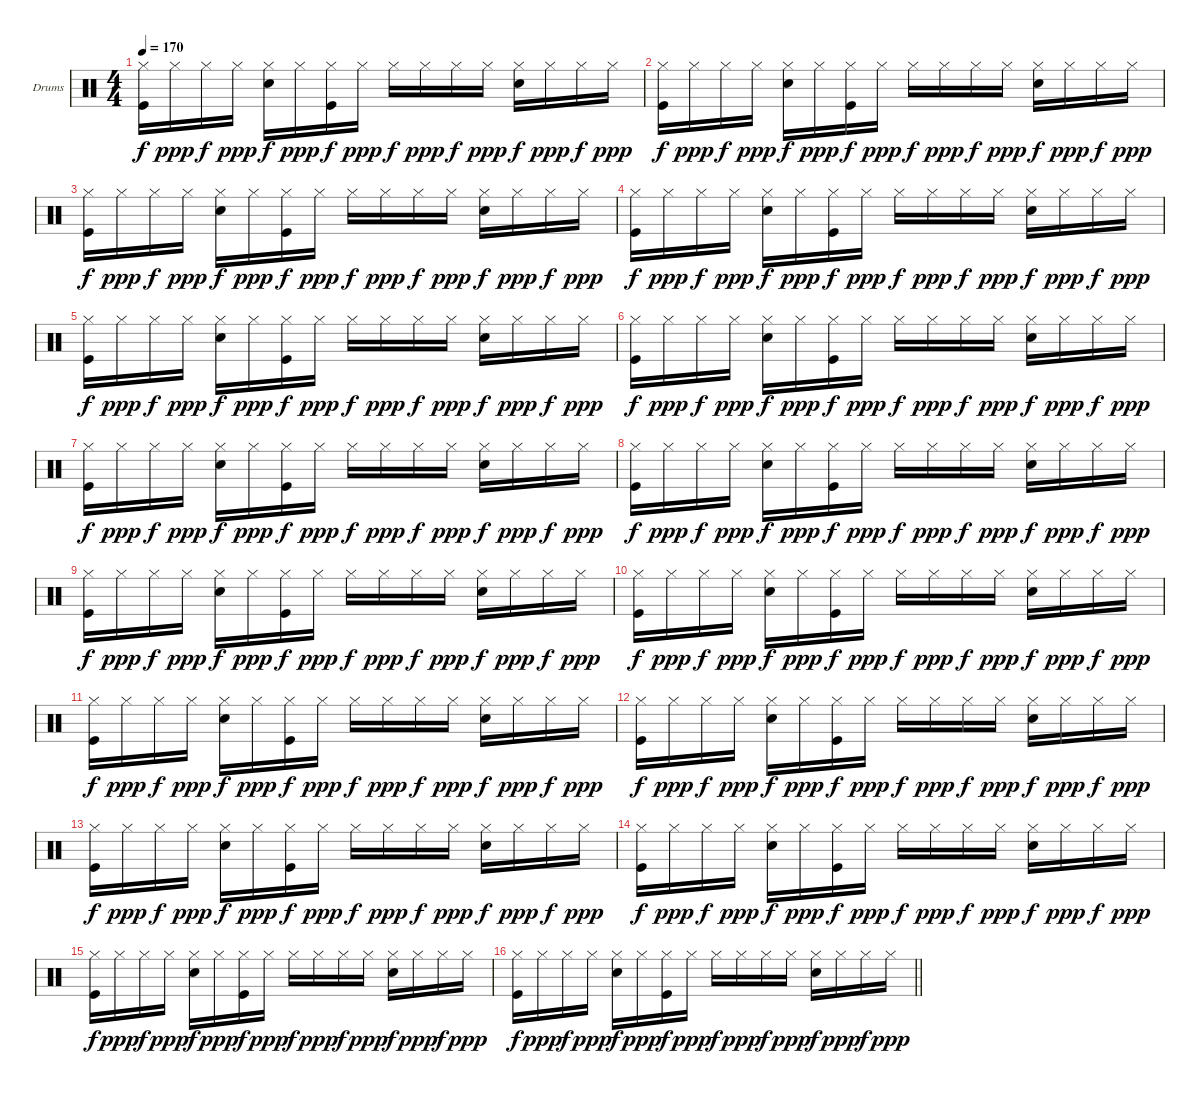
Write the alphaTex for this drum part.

\bracketExtendMode groupsimilarinstruments
\firstSystemTrackNameOrientation horizontal
\otherSystemsTrackNameOrientation horizontal
\track ("Drumkit" "Drums") {instrument percussion}
\staff {score}
\articulation defaults
\ts (4 4)
\tempo 170
\clef neutral
\ks c
("Hi-Hat (closed)" "Kick (hit)").16{dy f} "Hi-Hat (closed)".16{dy ppp} "Hi-Hat (closed)".16{dy f} "Hi-Hat (closed)".16{dy ppp} ("Hi-Hat (closed)" "Snare (hit) 2").16{dy f} "Hi-Hat (closed)".16{dy ppp} ("Hi-Hat (closed)" "Kick (hit)").16{dy f} "Hi-Hat (closed)".16{dy ppp} "Hi-Hat (closed)".16{dy f} "Hi-Hat (closed)".16{dy ppp} "Hi-Hat (closed)".16{dy f} "Hi-Hat (closed)".16{dy ppp} ("Hi-Hat (closed)" "Snare (hit) 2").16{dy f} "Hi-Hat (closed)".16{dy ppp} "Hi-Hat (closed)".16{dy f} "Hi-Hat (closed)".16{dy ppp} |
("Hi-Hat (closed)" "Kick (hit)").16{dy f} "Hi-Hat (closed)".16{dy ppp} "Hi-Hat (closed)".16{dy f} "Hi-Hat (closed)".16{dy ppp} ("Hi-Hat (closed)" "Snare (hit) 2").16{dy f} "Hi-Hat (closed)".16{dy ppp} ("Hi-Hat (closed)" "Kick (hit)").16{dy f} "Hi-Hat (closed)".16{dy ppp} "Hi-Hat (closed)".16{dy f} "Hi-Hat (closed)".16{dy ppp} "Hi-Hat (closed)".16{dy f} "Hi-Hat (closed)".16{dy ppp} ("Hi-Hat (closed)" "Snare (hit) 2").16{dy f} "Hi-Hat (closed)".16{dy ppp} "Hi-Hat (closed)".16{dy f} "Hi-Hat (closed)".16{dy ppp} |
("Hi-Hat (closed)" "Kick (hit)").16{dy f} "Hi-Hat (closed)".16{dy ppp} "Hi-Hat (closed)".16{dy f} "Hi-Hat (closed)".16{dy ppp} ("Hi-Hat (closed)" "Snare (hit) 2").16{dy f} "Hi-Hat (closed)".16{dy ppp} ("Hi-Hat (closed)" "Kick (hit)").16{dy f} "Hi-Hat (closed)".16{dy ppp} "Hi-Hat (closed)".16{dy f} "Hi-Hat (closed)".16{dy ppp} "Hi-Hat (closed)".16{dy f} "Hi-Hat (closed)".16{dy ppp} ("Hi-Hat (closed)" "Snare (hit) 2").16{dy f} "Hi-Hat (closed)".16{dy ppp} "Hi-Hat (closed)".16{dy f} "Hi-Hat (closed)".16{dy ppp} |
("Hi-Hat (closed)" "Kick (hit)").16{dy f} "Hi-Hat (closed)".16{dy ppp} "Hi-Hat (closed)".16{dy f} "Hi-Hat (closed)".16{dy ppp} ("Hi-Hat (closed)" "Snare (hit) 2").16{dy f} "Hi-Hat (closed)".16{dy ppp} ("Hi-Hat (closed)" "Kick (hit)").16{dy f} "Hi-Hat (closed)".16{dy ppp} "Hi-Hat (closed)".16{dy f} "Hi-Hat (closed)".16{dy ppp} "Hi-Hat (closed)".16{dy f} "Hi-Hat (closed)".16{dy ppp} ("Hi-Hat (closed)" "Snare (hit) 2").16{dy f} "Hi-Hat (closed)".16{dy ppp} "Hi-Hat (closed)".16{dy f} "Hi-Hat (closed)".16{dy ppp} |
("Hi-Hat (closed)" "Kick (hit)").16{dy f} "Hi-Hat (closed)".16{dy ppp} "Hi-Hat (closed)".16{dy f} "Hi-Hat (closed)".16{dy ppp} ("Hi-Hat (closed)" "Snare (hit) 2").16{dy f} "Hi-Hat (closed)".16{dy ppp} ("Hi-Hat (closed)" "Kick (hit)").16{dy f} "Hi-Hat (closed)".16{dy ppp} "Hi-Hat (closed)".16{dy f} "Hi-Hat (closed)".16{dy ppp} "Hi-Hat (closed)".16{dy f} "Hi-Hat (closed)".16{dy ppp} ("Hi-Hat (closed)" "Snare (hit) 2").16{dy f} "Hi-Hat (closed)".16{dy ppp} "Hi-Hat (closed)".16{dy f} "Hi-Hat (closed)".16{dy ppp} |
("Hi-Hat (closed)" "Kick (hit)").16{dy f} "Hi-Hat (closed)".16{dy ppp} "Hi-Hat (closed)".16{dy f} "Hi-Hat (closed)".16{dy ppp} ("Hi-Hat (closed)" "Snare (hit) 2").16{dy f} "Hi-Hat (closed)".16{dy ppp} ("Hi-Hat (closed)" "Kick (hit)").16{dy f} "Hi-Hat (closed)".16{dy ppp} "Hi-Hat (closed)".16{dy f} "Hi-Hat (closed)".16{dy ppp} "Hi-Hat (closed)".16{dy f} "Hi-Hat (closed)".16{dy ppp} ("Hi-Hat (closed)" "Snare (hit) 2").16{dy f} "Hi-Hat (closed)".16{dy ppp} "Hi-Hat (closed)".16{dy f} "Hi-Hat (closed)".16{dy ppp} |
("Hi-Hat (closed)" "Kick (hit)").16{dy f} "Hi-Hat (closed)".16{dy ppp} "Hi-Hat (closed)".16{dy f} "Hi-Hat (closed)".16{dy ppp} ("Hi-Hat (closed)" "Snare (hit) 2").16{dy f} "Hi-Hat (closed)".16{dy ppp} ("Hi-Hat (closed)" "Kick (hit)").16{dy f} "Hi-Hat (closed)".16{dy ppp} "Hi-Hat (closed)".16{dy f} "Hi-Hat (closed)".16{dy ppp} "Hi-Hat (closed)".16{dy f} "Hi-Hat (closed)".16{dy ppp} ("Hi-Hat (closed)" "Snare (hit) 2").16{dy f} "Hi-Hat (closed)".16{dy ppp} "Hi-Hat (closed)".16{dy f} "Hi-Hat (closed)".16{dy ppp} |
("Hi-Hat (closed)" "Kick (hit)").16{dy f} "Hi-Hat (closed)".16{dy ppp} "Hi-Hat (closed)".16{dy f} "Hi-Hat (closed)".16{dy ppp} ("Hi-Hat (closed)" "Snare (hit) 2").16{dy f} "Hi-Hat (closed)".16{dy ppp} ("Hi-Hat (closed)" "Kick (hit)").16{dy f} "Hi-Hat (closed)".16{dy ppp} "Hi-Hat (closed)".16{dy f} "Hi-Hat (closed)".16{dy ppp} "Hi-Hat (closed)".16{dy f} "Hi-Hat (closed)".16{dy ppp} ("Hi-Hat (closed)" "Snare (hit) 2").16{dy f} "Hi-Hat (closed)".16{dy ppp} "Hi-Hat (closed)".16{dy f} "Hi-Hat (closed)".16{dy ppp} |
("Hi-Hat (closed)" "Kick (hit)").16{dy f} "Hi-Hat (closed)".16{dy ppp} "Hi-Hat (closed)".16{dy f} "Hi-Hat (closed)".16{dy ppp} ("Hi-Hat (closed)" "Snare (hit) 2").16{dy f} "Hi-Hat (closed)".16{dy ppp} ("Hi-Hat (closed)" "Kick (hit)").16{dy f} "Hi-Hat (closed)".16{dy ppp} "Hi-Hat (closed)".16{dy f} "Hi-Hat (closed)".16{dy ppp} "Hi-Hat (closed)".16{dy f} "Hi-Hat (closed)".16{dy ppp} ("Hi-Hat (closed)" "Snare (hit) 2").16{dy f} "Hi-Hat (closed)".16{dy ppp} "Hi-Hat (closed)".16{dy f} "Hi-Hat (closed)".16{dy ppp} |
("Hi-Hat (closed)" "Kick (hit)").16{dy f} "Hi-Hat (closed)".16{dy ppp} "Hi-Hat (closed)".16{dy f} "Hi-Hat (closed)".16{dy ppp} ("Hi-Hat (closed)" "Snare (hit) 2").16{dy f} "Hi-Hat (closed)".16{dy ppp} ("Hi-Hat (closed)" "Kick (hit)").16{dy f} "Hi-Hat (closed)".16{dy ppp} "Hi-Hat (closed)".16{dy f} "Hi-Hat (closed)".16{dy ppp} "Hi-Hat (closed)".16{dy f} "Hi-Hat (closed)".16{dy ppp} ("Hi-Hat (closed)" "Snare (hit) 2").16{dy f} "Hi-Hat (closed)".16{dy ppp} "Hi-Hat (closed)".16{dy f} "Hi-Hat (closed)".16{dy ppp} |
("Hi-Hat (closed)" "Kick (hit)").16{dy f} "Hi-Hat (closed)".16{dy ppp} "Hi-Hat (closed)".16{dy f} "Hi-Hat (closed)".16{dy ppp} ("Hi-Hat (closed)" "Snare (hit) 2").16{dy f} "Hi-Hat (closed)".16{dy ppp} ("Hi-Hat (closed)" "Kick (hit)").16{dy f} "Hi-Hat (closed)".16{dy ppp} "Hi-Hat (closed)".16{dy f} "Hi-Hat (closed)".16{dy ppp} "Hi-Hat (closed)".16{dy f} "Hi-Hat (closed)".16{dy ppp} ("Hi-Hat (closed)" "Snare (hit) 2").16{dy f} "Hi-Hat (closed)".16{dy ppp} "Hi-Hat (closed)".16{dy f} "Hi-Hat (closed)".16{dy ppp} |
("Hi-Hat (closed)" "Kick (hit)").16{dy f} "Hi-Hat (closed)".16{dy ppp} "Hi-Hat (closed)".16{dy f} "Hi-Hat (closed)".16{dy ppp} ("Hi-Hat (closed)" "Snare (hit) 2").16{dy f} "Hi-Hat (closed)".16{dy ppp} ("Hi-Hat (closed)" "Kick (hit)").16{dy f} "Hi-Hat (closed)".16{dy ppp} "Hi-Hat (closed)".16{dy f} "Hi-Hat (closed)".16{dy ppp} "Hi-Hat (closed)".16{dy f} "Hi-Hat (closed)".16{dy ppp} ("Hi-Hat (closed)" "Snare (hit) 2").16{dy f} "Hi-Hat (closed)".16{dy ppp} "Hi-Hat (closed)".16{dy f} "Hi-Hat (closed)".16{dy ppp} |
("Hi-Hat (closed)" "Kick (hit)").16{dy f} "Hi-Hat (closed)".16{dy ppp} "Hi-Hat (closed)".16{dy f} "Hi-Hat (closed)".16{dy ppp} ("Hi-Hat (closed)" "Snare (hit) 2").16{dy f} "Hi-Hat (closed)".16{dy ppp} ("Hi-Hat (closed)" "Kick (hit)").16{dy f} "Hi-Hat (closed)".16{dy ppp} "Hi-Hat (closed)".16{dy f} "Hi-Hat (closed)".16{dy ppp} "Hi-Hat (closed)".16{dy f} "Hi-Hat (closed)".16{dy ppp} ("Hi-Hat (closed)" "Snare (hit) 2").16{dy f} "Hi-Hat (closed)".16{dy ppp} "Hi-Hat (closed)".16{dy f} "Hi-Hat (closed)".16{dy ppp} |
("Hi-Hat (closed)" "Kick (hit)").16{dy f} "Hi-Hat (closed)".16{dy ppp} "Hi-Hat (closed)".16{dy f} "Hi-Hat (closed)".16{dy ppp} ("Hi-Hat (closed)" "Snare (hit) 2").16{dy f} "Hi-Hat (closed)".16{dy ppp} ("Hi-Hat (closed)" "Kick (hit)").16{dy f} "Hi-Hat (closed)".16{dy ppp} "Hi-Hat (closed)".16{dy f} "Hi-Hat (closed)".16{dy ppp} "Hi-Hat (closed)".16{dy f} "Hi-Hat (closed)".16{dy ppp} ("Hi-Hat (closed)" "Snare (hit) 2").16{dy f} "Hi-Hat (closed)".16{dy ppp} "Hi-Hat (closed)".16{dy f} "Hi-Hat (closed)".16{dy ppp} |
("Hi-Hat (closed)" "Kick (hit)").16{dy f} "Hi-Hat (closed)".16{dy ppp} "Hi-Hat (closed)".16{dy f} "Hi-Hat (closed)".16{dy ppp} ("Hi-Hat (closed)" "Snare (hit) 2").16{dy f} "Hi-Hat (closed)".16{dy ppp} ("Hi-Hat (closed)" "Kick (hit)").16{dy f} "Hi-Hat (closed)".16{dy ppp} "Hi-Hat (closed)".16{dy f} "Hi-Hat (closed)".16{dy ppp} "Hi-Hat (closed)".16{dy f} "Hi-Hat (closed)".16{dy ppp} ("Hi-Hat (closed)" "Snare (hit) 2").16{dy f} "Hi-Hat (closed)".16{dy ppp} "Hi-Hat (closed)".16{dy f} "Hi-Hat (closed)".16{dy ppp} |
\barLineRight lightlight
("Hi-Hat (closed)" "Kick (hit)").16{dy f} "Hi-Hat (closed)".16{dy ppp} "Hi-Hat (closed)".16{dy f} "Hi-Hat (closed)".16{dy ppp} ("Hi-Hat (closed)" "Snare (hit) 2").16{dy f} "Hi-Hat (closed)".16{dy ppp} ("Hi-Hat (closed)" "Kick (hit)").16{dy f} "Hi-Hat (closed)".16{dy ppp} "Hi-Hat (closed)".16{dy f} "Hi-Hat (closed)".16{dy ppp} "Hi-Hat (closed)".16{dy f} "Hi-Hat (closed)".16{dy ppp} ("Hi-Hat (closed)" "Snare (hit) 2").16{dy f} "Hi-Hat (closed)".16{dy ppp} "Hi-Hat (closed)".16{dy f} "Hi-Hat (closed)".16{dy ppp}
